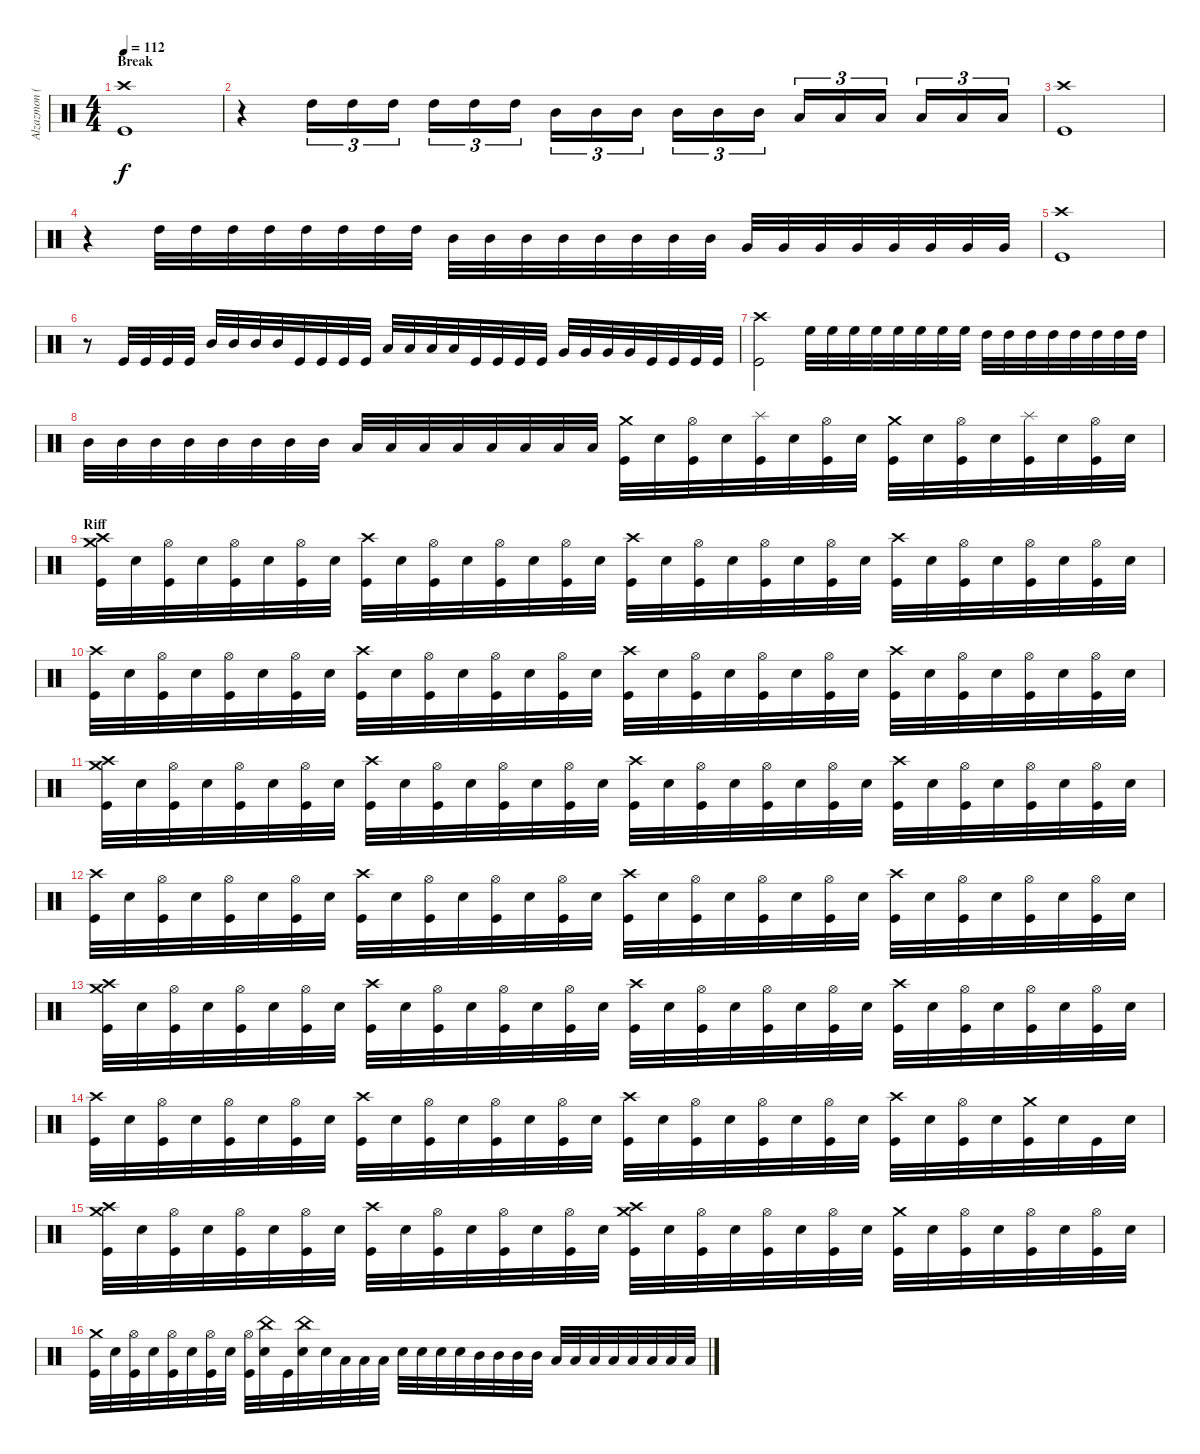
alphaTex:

\track ("Alzazmon (Drums)" "Alzazmon (") {instrument percussion}
\staff {score}
\articulation defaults
\ts (4 4)
\section ("" "Break")
\tempo 112
\clef neutral
\ks c
("Crash high (hit)" "Kick (hit)").1{dy f} |
r.4{balance 0} "High Tom (hit)".16{tu (3 2) balance 8} "High Tom (hit)".16{tu (3 2)} "High Tom (hit)".16{tu (3 2)} "High Tom (hit)".16{tu (3 2)} "High Tom (hit)".16{tu (3 2)} "High Tom (hit)".16{tu (3 2)} "Mid Tom (hit)".16{tu (3 2)} "Mid Tom (hit)".16{tu (3 2)} "Mid Tom (hit)".16{tu (3 2)} "Mid Tom (hit)".16{tu (3 2)} "Mid Tom (hit)".16{tu (3 2)} "Mid Tom (hit)".16{tu (3 2)} "Low Tom (hit)".16{tu (3 2)} "Low Tom (hit)".16{tu (3 2)} "Low Tom (hit)".16{tu (3 2)} "Low Tom (hit)".16{tu (3 2)} "Low Tom (hit)".16{tu (3 2)} "Low Tom (hit)".16{tu (3 2)} |
("Crash high (hit)" "Kick (hit)").1 |
r.4 "High Tom (hit)".32 "High Tom (hit)".32 "High Tom (hit)".32 "High Tom (hit)".32 "High Tom (hit)".32 "High Tom (hit)".32 "High Tom (hit)".32 "High Tom (hit)".32 "Mid Tom (hit)".32 "Mid Tom (hit)".32 "Mid Tom (hit)".32 "Mid Tom (hit)".32 "Mid Tom (hit)".32 "Mid Tom (hit)".32 "Mid Tom (hit)".32 "Mid Tom (hit)".32 "Very Low Tom (hit)".32 "Very Low Tom (hit)".32 "Very Low Tom (hit)".32 "Very Low Tom (hit)".32 "Very Low Tom (hit)".32 "Very Low Tom (hit)".32 "Very Low Tom (hit)".32 "Very Low Tom (hit)".32 |
("Crash high (hit)" "Kick (hit)").1 |
r.8 "Kick (hit)".32 "Kick (hit)".32 "Kick (hit)".32 "Kick (hit)".32 "Mid Tom (hit)".32 "Mid Tom (hit)".32 "Mid Tom (hit)".32 "Mid Tom (hit)".32 "Kick (hit)".32 "Kick (hit)".32 "Kick (hit)".32 "Kick (hit)".32 "Low Tom (hit)".32 "Low Tom (hit)".32 "Low Tom (hit)".32 "Low Tom (hit)".32 "Kick (hit)".32 "Kick (hit)".32 "Kick (hit)".32 "Kick (hit)".32 "Very Low Tom (hit)".32 "Very Low Tom (hit)".32 "Very Low Tom (hit)".32 "Very Low Tom (hit)".32 "Kick (hit)".32 "Kick (hit)".32 "Kick (hit)".32 "Kick (hit)".32 |
("Crash high (hit)" "Kick (hit)").2 "High Floor Tom (hit)".32 "High Floor Tom (hit)".32 "High Floor Tom (hit)".32 "High Floor Tom (hit)".32 "High Floor Tom (hit)".32 "High Floor Tom (hit)".32 "High Floor Tom (hit)".32 "High Floor Tom (hit)".32 "High Tom (hit)".32 "High Tom (hit)".32 "High Tom (hit)".32 "High Tom (hit)".32 "High Tom (hit)".32 "High Tom (hit)".32 "High Tom (hit)".32 "High Tom (hit)".32 |
"Mid Tom (hit)".32 "Mid Tom (hit)".32 "Mid Tom (hit)".32 "Mid Tom (hit)".32 "Mid Tom (hit)".32 "Mid Tom (hit)".32 "Mid Tom (hit)".32 "Mid Tom (hit)".32 "Low Tom (hit)".32 "Low Tom (hit)".32 "Low Tom (hit)".32 "Low Tom (hit)".32 "Low Tom (hit)".32 "Low Tom (hit)".32 "Low Tom (hit)".32 "Low Tom (hit)".32 ("Crash medium (hit)" "Kick (hit)").32 "Electric Snare (hit)".32 ("Hi-Hat (open)" "Kick (hit)").32 "Electric Snare (hit)".32 ("Splash (hit)" "Kick (hit)").32 "Electric Snare (hit)".32 ("Hi-Hat (open)" "Kick (hit)").32 "Electric Snare (hit)".32 ("Crash medium (hit)" "Kick (hit)").32 "Electric Snare (hit)".32 ("Hi-Hat (open)" "Kick (hit)").32 "Electric Snare (hit)".32 ("Splash (hit)" "Kick (hit)").32 "Electric Snare (hit)".32 ("Hi-Hat (open)" "Kick (hit)").32 "Electric Snare (hit)".32 |
\section ("" "Riff")
("Crash high (hit)" "Crash medium (hit)" "Kick (hit)").32 "Electric Snare (hit)".32 ("Hi-Hat (open)" "Kick (hit)").32 "Electric Snare (hit)".32 ("Hi-Hat (open)" "Kick (hit)").32 "Electric Snare (hit)".32 ("Hi-Hat (open)" "Kick (hit)").32 "Electric Snare (hit)".32 ("Crash high (hit)" "Kick (hit)").32 "Electric Snare (hit)".32 ("Hi-Hat (open)" "Kick (hit)").32 "Electric Snare (hit)".32 ("Hi-Hat (open)" "Kick (hit)").32 "Electric Snare (hit)".32 ("Hi-Hat (open)" "Kick (hit)").32 "Electric Snare (hit)".32 ("Crash high (hit)" "Kick (hit)").32 "Electric Snare (hit)".32 ("Hi-Hat (open)" "Kick (hit)").32 "Electric Snare (hit)".32 ("Hi-Hat (open)" "Kick (hit)").32 "Electric Snare (hit)".32 ("Hi-Hat (open)" "Kick (hit)").32 "Electric Snare (hit)".32 ("Crash high (hit)" "Kick (hit)").32 "Electric Snare (hit)".32 ("Hi-Hat (open)" "Kick (hit)").32 "Electric Snare (hit)".32 ("Hi-Hat (open)" "Kick (hit)").32 "Electric Snare (hit)".32 ("Hi-Hat (open)" "Kick (hit)").32 "Electric Snare (hit)".32 |
("Crash high (hit)" "Kick (hit)").32 "Electric Snare (hit)".32 ("Hi-Hat (open)" "Kick (hit)").32 "Electric Snare (hit)".32 ("Hi-Hat (open)" "Kick (hit)").32 "Electric Snare (hit)".32 ("Hi-Hat (open)" "Kick (hit)").32 "Electric Snare (hit)".32 ("Crash high (hit)" "Kick (hit)").32 "Electric Snare (hit)".32 ("Hi-Hat (open)" "Kick (hit)").32 "Electric Snare (hit)".32 ("Hi-Hat (open)" "Kick (hit)").32 "Electric Snare (hit)".32 ("Hi-Hat (open)" "Kick (hit)").32 "Electric Snare (hit)".32 ("Crash high (hit)" "Kick (hit)").32 "Electric Snare (hit)".32 ("Hi-Hat (open)" "Kick (hit)").32 "Electric Snare (hit)".32 ("Hi-Hat (open)" "Kick (hit)").32 "Electric Snare (hit)".32 ("Hi-Hat (open)" "Kick (hit)").32 "Electric Snare (hit)".32 ("Crash high (hit)" "Kick (hit)").32 "Electric Snare (hit)".32 ("Hi-Hat (open)" "Kick (hit)").32 "Electric Snare (hit)".32 ("Hi-Hat (open)" "Kick (hit)").32 "Electric Snare (hit)".32 ("Hi-Hat (open)" "Kick (hit)").32 "Electric Snare (hit)".32 |
("Crash high (hit)" "Crash medium (hit)" "Kick (hit)").32 "Electric Snare (hit)".32 ("Hi-Hat (open)" "Kick (hit)").32 "Electric Snare (hit)".32 ("Hi-Hat (open)" "Kick (hit)").32 "Electric Snare (hit)".32 ("Hi-Hat (open)" "Kick (hit)").32 "Electric Snare (hit)".32 ("Crash high (hit)" "Kick (hit)").32 "Electric Snare (hit)".32 ("Hi-Hat (open)" "Kick (hit)").32 "Electric Snare (hit)".32 ("Hi-Hat (open)" "Kick (hit)").32 "Electric Snare (hit)".32 ("Hi-Hat (open)" "Kick (hit)").32 "Electric Snare (hit)".32 ("Crash high (hit)" "Kick (hit)").32 "Electric Snare (hit)".32 ("Hi-Hat (open)" "Kick (hit)").32 "Electric Snare (hit)".32 ("Hi-Hat (open)" "Kick (hit)").32 "Electric Snare (hit)".32 ("Hi-Hat (open)" "Kick (hit)").32 "Electric Snare (hit)".32 ("Crash high (hit)" "Kick (hit)").32 "Electric Snare (hit)".32 ("Hi-Hat (open)" "Kick (hit)").32 "Electric Snare (hit)".32 ("Hi-Hat (open)" "Kick (hit)").32 "Electric Snare (hit)".32 ("Hi-Hat (open)" "Kick (hit)").32 "Electric Snare (hit)".32 |
("Crash high (hit)" "Kick (hit)").32 "Electric Snare (hit)".32 ("Hi-Hat (open)" "Kick (hit)").32 "Electric Snare (hit)".32 ("Hi-Hat (open)" "Kick (hit)").32 "Electric Snare (hit)".32 ("Hi-Hat (open)" "Kick (hit)").32 "Electric Snare (hit)".32 ("Crash high (hit)" "Kick (hit)").32 "Electric Snare (hit)".32 ("Hi-Hat (open)" "Kick (hit)").32 "Electric Snare (hit)".32 ("Hi-Hat (open)" "Kick (hit)").32 "Electric Snare (hit)".32 ("Hi-Hat (open)" "Kick (hit)").32 "Electric Snare (hit)".32 ("Crash high (hit)" "Kick (hit)").32 "Electric Snare (hit)".32 ("Hi-Hat (open)" "Kick (hit)").32 "Electric Snare (hit)".32 ("Hi-Hat (open)" "Kick (hit)").32 "Electric Snare (hit)".32 ("Hi-Hat (open)" "Kick (hit)").32 "Electric Snare (hit)".32 ("Crash high (hit)" "Kick (hit)").32 "Electric Snare (hit)".32 ("Hi-Hat (open)" "Kick (hit)").32 "Electric Snare (hit)".32 ("Hi-Hat (open)" "Kick (hit)").32 "Electric Snare (hit)".32 ("Hi-Hat (open)" "Kick (hit)").32 "Electric Snare (hit)".32 |
("Crash high (hit)" "Crash medium (hit)" "Kick (hit)").32 "Electric Snare (hit)".32 ("Hi-Hat (open)" "Kick (hit)").32 "Electric Snare (hit)".32 ("Hi-Hat (open)" "Kick (hit)").32 "Electric Snare (hit)".32 ("Hi-Hat (open)" "Kick (hit)").32 "Electric Snare (hit)".32 ("Crash high (hit)" "Kick (hit)").32 "Electric Snare (hit)".32 ("Hi-Hat (open)" "Kick (hit)").32 "Electric Snare (hit)".32 ("Hi-Hat (open)" "Kick (hit)").32 "Electric Snare (hit)".32 ("Hi-Hat (open)" "Kick (hit)").32 "Electric Snare (hit)".32 ("Crash high (hit)" "Kick (hit)").32 "Electric Snare (hit)".32 ("Hi-Hat (open)" "Kick (hit)").32 "Electric Snare (hit)".32 ("Hi-Hat (open)" "Kick (hit)").32 "Electric Snare (hit)".32 ("Hi-Hat (open)" "Kick (hit)").32 "Electric Snare (hit)".32 ("Crash high (hit)" "Kick (hit)").32 "Electric Snare (hit)".32 ("Hi-Hat (open)" "Kick (hit)").32 "Electric Snare (hit)".32 ("Hi-Hat (open)" "Kick (hit)").32 "Electric Snare (hit)".32 ("Hi-Hat (open)" "Kick (hit)").32 "Electric Snare (hit)".32 |
("Crash high (hit)" "Kick (hit)").32 "Electric Snare (hit)".32 ("Hi-Hat (open)" "Kick (hit)").32 "Electric Snare (hit)".32 ("Hi-Hat (open)" "Kick (hit)").32 "Electric Snare (hit)".32 ("Hi-Hat (open)" "Kick (hit)").32 "Electric Snare (hit)".32 ("Crash high (hit)" "Kick (hit)").32 "Electric Snare (hit)".32 ("Hi-Hat (open)" "Kick (hit)").32 "Electric Snare (hit)".32 ("Hi-Hat (open)" "Kick (hit)").32 "Electric Snare (hit)".32 ("Hi-Hat (open)" "Kick (hit)").32 "Electric Snare (hit)".32 ("Crash high (hit)" "Kick (hit)").32 "Electric Snare (hit)".32 ("Hi-Hat (open)" "Kick (hit)").32 "Electric Snare (hit)".32 ("Hi-Hat (open)" "Kick (hit)").32 "Electric Snare (hit)".32 ("Hi-Hat (open)" "Kick (hit)").32 "Electric Snare (hit)".32 ("Crash high (hit)" "Kick (hit)").32 "Electric Snare (hit)".32 ("Hi-Hat (open)" "Kick (hit)").32 "Electric Snare (hit)".32 ("Crash medium (hit)" "Kick (hit)").32 "Electric Snare (hit)".32 "Kick (hit)".32 "Electric Snare (hit)".32 |
("Crash high (hit)" "Crash medium (hit)" "Kick (hit)").32 "Electric Snare (hit)".32 ("Hi-Hat (open)" "Kick (hit)").32 "Electric Snare (hit)".32 ("Hi-Hat (open)" "Kick (hit)").32 "Electric Snare (hit)".32 ("Hi-Hat (open)" "Kick (hit)").32 "Electric Snare (hit)".32 ("Crash high (hit)" "Kick (hit)").32 "Electric Snare (hit)".32 ("Hi-Hat (open)" "Kick (hit)").32 "Electric Snare (hit)".32 ("Hi-Hat (open)" "Kick (hit)").32 "Electric Snare (hit)".32 ("Hi-Hat (open)" "Kick (hit)").32 "Electric Snare (hit)".32 ("Crash high (hit)" "Crash medium (hit)" "Kick (hit)").32 "Electric Snare (hit)".32 ("Hi-Hat (open)" "Kick (hit)").32 "Electric Snare (hit)".32 ("Hi-Hat (open)" "Kick (hit)").32 "Electric Snare (hit)".32 ("Hi-Hat (open)" "Kick (hit)").32 "Electric Snare (hit)".32 ("Crash medium (hit)" "Kick (hit)").32 "Electric Snare (hit)".32 ("Hi-Hat (open)" "Kick (hit)").32 "Electric Snare (hit)".32 ("Hi-Hat (open)" "Kick (hit)").32 "Electric Snare (hit)".32 ("Hi-Hat (open)" "Kick (hit)").32 "Electric Snare (hit)".32 |
("Crash medium (hit)" "Kick (hit)").32 "Electric Snare (hit)".32 ("Hi-Hat (open)" "Kick (hit)").32 "Electric Snare (hit)".32 ("Hi-Hat (open)" "Kick (hit)").32 "Electric Snare (hit)".32 ("Hi-Hat (open)" "Kick (hit)").32 "Electric Snare (hit)".32 ("Hi-Hat (open)" "Kick (hit)").32 ("China (hit)" "Electric Snare (hit)").32 "Kick (hit)".32 ("China (hit)" "Electric Snare (hit)").32 "Electric Snare (hit)".32 "Low Tom (hit)".32 "Low Tom (hit)".32 "Low Tom (hit)".32 "Electric Snare (hit)".32 "Electric Snare (hit)".32 "Electric Snare (hit)".32 "Electric Snare (hit)".32 "Mid Tom (hit)".32 "Mid Tom (hit)".32 "Mid Tom (hit)".32 "Mid Tom (hit)".32 "Low Tom (hit)".32 "Low Tom (hit)".32 "Low Tom (hit)".32 "Low Tom (hit)".32 "Low Floor Tom (hit)".32 "Low Floor Tom (hit)".32 "Low Floor Tom (hit)".32 "Low Floor Tom (hit)".32
